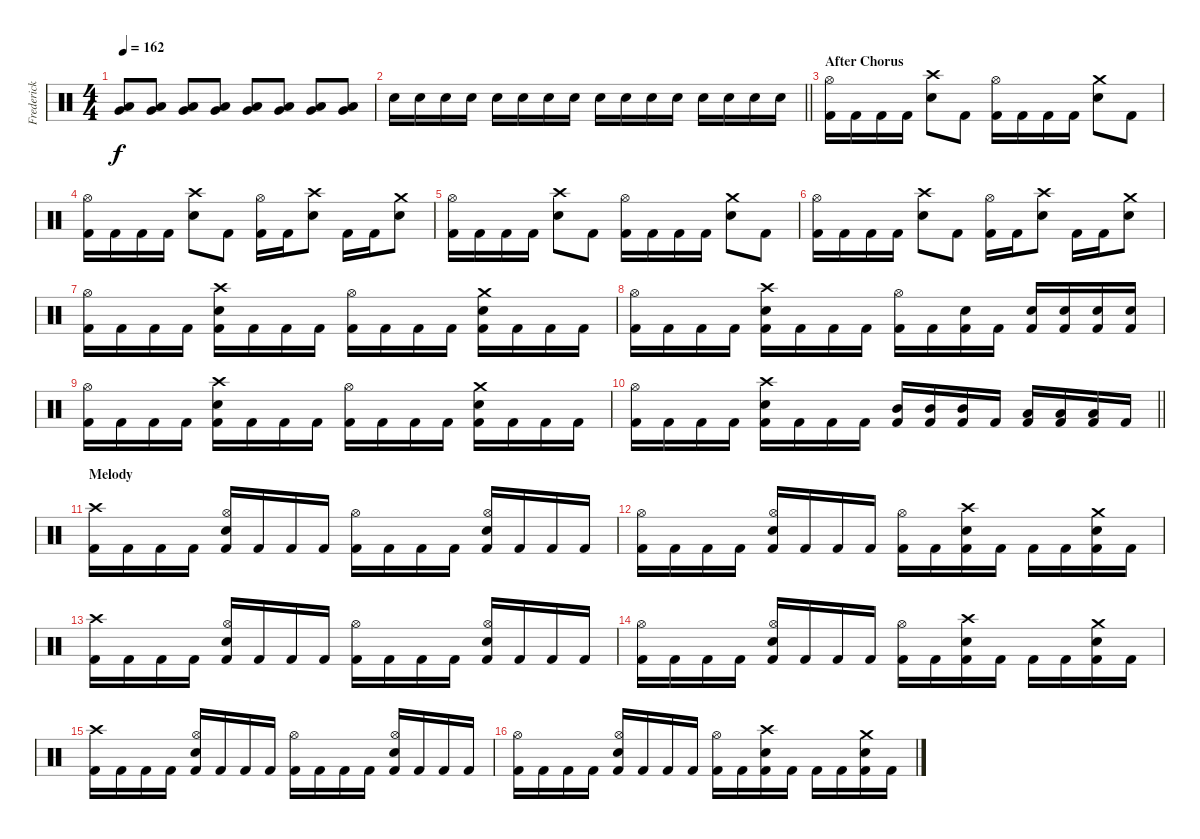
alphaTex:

\track ("Frederick Ehmke" "Frederick ") {instrument percussion}
\staff {score}
\articulation defaults
\ts (4 4)
\tempo 162
\clef neutral
\ks c
("Low Floor Tom (hit)" "Very Low Tom (hit)").8{dy f} ("Low Floor Tom (hit)" "Very Low Tom (hit)").8 ("Low Floor Tom (hit)" "Very Low Tom (hit)").8 ("Low Floor Tom (hit)" "Very Low Tom (hit)").8 ("Low Floor Tom (hit)" "Very Low Tom (hit)").8 ("Low Floor Tom (hit)" "Very Low Tom (hit)").8 ("Low Floor Tom (hit)" "Very Low Tom (hit)").8 ("Low Floor Tom (hit)" "Very Low Tom (hit)").8 |
\barLineRight lightlight "Electric Snare (hit)".16 "Electric Snare (hit)".16 "Electric Snare (hit)".16 "Electric Snare (hit)".16 "Electric Snare (hit)".16 "Electric Snare (hit)".16 "Electric Snare (hit)".16 "Electric Snare (hit)".16 "Electric Snare (hit)".16 "Electric Snare (hit)".16 "Electric Snare (hit)".16 "Electric Snare (hit)".16 "Electric Snare (hit)".16 "Electric Snare (hit)".16 "Electric Snare (hit)".16 "Electric Snare (hit)".16
|
\section ("" "After Chorus")
("Hi-Hat (open)" "Kick (hit) 2").16 "Kick (hit) 2".16 "Kick (hit) 2".16 "Kick (hit) 2".16 ("Electric Snare (hit)" "Crash high (hit)").8 "Kick (hit) 2".8 ("Hi-Hat (open)" "Kick (hit) 2").16 "Kick (hit) 2".16 "Kick (hit) 2".16 "Kick (hit) 2".16 ("Electric Snare (hit)" "Crash medium (hit)").8 "Kick (hit) 2".8 |
("Hi-Hat (open)" "Kick (hit) 2").16 "Kick (hit) 2".16 "Kick (hit) 2".16 "Kick (hit) 2".16 ("Electric Snare (hit)" "Crash high (hit)").8 "Kick (hit) 2".8 ("Hi-Hat (open)" "Kick (hit) 2").16 "Kick (hit) 2".16 ("Electric Snare (hit)" "Crash high (hit)").8 "Kick (hit) 2".16 "Kick (hit) 2".16 ("Electric Snare (hit)" "Crash medium (hit)").8 |
("Hi-Hat (open)" "Kick (hit) 2").16 "Kick (hit) 2".16 "Kick (hit) 2".16 "Kick (hit) 2".16 ("Electric Snare (hit)" "Crash high (hit)").8 "Kick (hit) 2".8 ("Hi-Hat (open)" "Kick (hit) 2").16 "Kick (hit) 2".16 "Kick (hit) 2".16 "Kick (hit) 2".16 ("Electric Snare (hit)" "Crash medium (hit)").8 "Kick (hit) 2".8 |
("Hi-Hat (open)" "Kick (hit) 2").16 "Kick (hit) 2".16 "Kick (hit) 2".16 "Kick (hit) 2".16 ("Electric Snare (hit)" "Crash high (hit)").8 "Kick (hit) 2".8 ("Hi-Hat (open)" "Kick (hit) 2").16 "Kick (hit) 2".16 ("Electric Snare (hit)" "Crash high (hit)").8 "Kick (hit) 2".16 "Kick (hit) 2".16 ("Electric Snare (hit)" "Crash medium (hit)").8 |
("Hi-Hat (open)" "Kick (hit) 2").16 "Kick (hit) 2".16 "Kick (hit) 2".16 "Kick (hit) 2".16 ("Electric Snare (hit)" "Crash high (hit)" "Kick (hit) 2").16 "Kick (hit) 2".16 "Kick (hit) 2".16 "Kick (hit) 2".16 ("Hi-Hat (open)" "Kick (hit) 2").16 "Kick (hit) 2".16 "Kick (hit) 2".16 "Kick (hit) 2".16 ("Electric Snare (hit)" "Crash medium (hit)" "Kick (hit) 2").16 "Kick (hit) 2".16 "Kick (hit) 2".16 "Kick (hit) 2".16 |
("Hi-Hat (open)" "Kick (hit) 2").16 "Kick (hit) 2".16 "Kick (hit) 2".16 "Kick (hit) 2".16 ("Electric Snare (hit)" "Crash high (hit)" "Kick (hit) 2").16 "Kick (hit) 2".16 "Kick (hit) 2".16 "Kick (hit) 2".16 ("Hi-Hat (open)" "Kick (hit) 2").16 "Kick (hit) 2".16 ("Electric Snare (hit)" "Kick (hit) 2").16 "Kick (hit) 2".16 ("Electric Snare (hit)" "Kick (hit) 2").16 ("Electric Snare (hit)" "Kick (hit) 2").16 ("Electric Snare (hit)" "Kick (hit) 2").16 ("Electric Snare (hit)" "Kick (hit) 2").16 |
("Hi-Hat (open)" "Kick (hit) 2").16 "Kick (hit) 2".16 "Kick (hit) 2".16 "Kick (hit) 2".16 ("Electric Snare (hit)" "Crash high (hit)" "Kick (hit) 2").16 "Kick (hit) 2".16 "Kick (hit) 2".16 "Kick (hit) 2".16 ("Hi-Hat (open)" "Kick (hit) 2").16 "Kick (hit) 2".16 "Kick (hit) 2".16 "Kick (hit) 2".16 ("Electric Snare (hit)" "Crash medium (hit)" "Kick (hit) 2").16 "Kick (hit) 2".16 "Kick (hit) 2".16 "Kick (hit) 2".16 |
\barLineRight lightlight
("Hi-Hat (open)" "Kick (hit) 2").16 "Kick (hit) 2".16 "Kick (hit) 2".16 "Kick (hit) 2".16 ("Electric Snare (hit)" "Crash high (hit)" "Kick (hit) 2").16 "Kick (hit) 2".16 "Kick (hit) 2".16 "Kick (hit) 2".16 ("Mid Tom (hit)" "Kick (hit) 2").16 ("Mid Tom (hit)" "Kick (hit) 2").16 ("Mid Tom (hit)" "Kick (hit) 2").16 "Kick (hit) 2".16 ("Low Tom (hit)" "Kick (hit) 2").16 ("Low Tom (hit)" "Kick (hit) 2").16 ("Low Tom (hit)" "Kick (hit) 2").16 "Kick (hit) 2".16 |
\section ("" "Melody")
("Crash high (hit)" "Kick (hit) 2").16 "Kick (hit) 2".16 "Kick (hit) 2".16 "Kick (hit) 2".16 ("Electric Snare (hit)" "Hi-Hat (open)" "Kick (hit) 2").16 "Kick (hit) 2".16 "Kick (hit) 2".16 "Kick (hit) 2".16 ("Hi-Hat (open)" "Kick (hit) 2").16 "Kick (hit) 2".16 "Kick (hit) 2".16 "Kick (hit) 2".16 ("Electric Snare (hit)" "Hi-Hat (open)" "Kick (hit) 2").16 "Kick (hit) 2".16 "Kick (hit) 2".16 "Kick (hit) 2".16 |
("Hi-Hat (open)" "Kick (hit) 2").16 "Kick (hit) 2".16 "Kick (hit) 2".16 "Kick (hit) 2".16 ("Electric Snare (hit)" "Hi-Hat (open)" "Kick (hit) 2").16 "Kick (hit) 2".16 "Kick (hit) 2".16 "Kick (hit) 2".16 ("Hi-Hat (open)" "Kick (hit) 2").16 "Kick (hit) 2".16 ("Electric Snare (hit)" "Crash high (hit)" "Kick (hit) 2").16 "Kick (hit) 2".16 "Kick (hit) 2".16 "Kick (hit) 2".16 ("Electric Snare (hit)" "Crash medium (hit)" "Kick (hit) 2").16 "Kick (hit) 2".16 |
("Crash high (hit)" "Kick (hit) 2").16 "Kick (hit) 2".16 "Kick (hit) 2".16 "Kick (hit) 2".16 ("Electric Snare (hit)" "Hi-Hat (open)" "Kick (hit) 2").16 "Kick (hit) 2".16 "Kick (hit) 2".16 "Kick (hit) 2".16 ("Hi-Hat (open)" "Kick (hit) 2").16 "Kick (hit) 2".16 "Kick (hit) 2".16 "Kick (hit) 2".16 ("Electric Snare (hit)" "Hi-Hat (open)" "Kick (hit) 2").16 "Kick (hit) 2".16 "Kick (hit) 2".16 "Kick (hit) 2".16 |
("Hi-Hat (open)" "Kick (hit) 2").16 "Kick (hit) 2".16 "Kick (hit) 2".16 "Kick (hit) 2".16 ("Electric Snare (hit)" "Hi-Hat (open)" "Kick (hit) 2").16 "Kick (hit) 2".16 "Kick (hit) 2".16 "Kick (hit) 2".16 ("Hi-Hat (open)" "Kick (hit) 2").16 "Kick (hit) 2".16 ("Electric Snare (hit)" "Crash high (hit)" "Kick (hit) 2").16 "Kick (hit) 2".16 "Kick (hit) 2".16 "Kick (hit) 2".16 ("Electric Snare (hit)" "Crash medium (hit)" "Kick (hit) 2").16 "Kick (hit) 2".16 |
("Crash high (hit)" "Kick (hit) 2").16 "Kick (hit) 2".16 "Kick (hit) 2".16 "Kick (hit) 2".16 ("Electric Snare (hit)" "Hi-Hat (open)" "Kick (hit) 2").16 "Kick (hit) 2".16 "Kick (hit) 2".16 "Kick (hit) 2".16 ("Hi-Hat (open)" "Kick (hit) 2").16 "Kick (hit) 2".16 "Kick (hit) 2".16 "Kick (hit) 2".16 ("Electric Snare (hit)" "Hi-Hat (open)" "Kick (hit) 2").16 "Kick (hit) 2".16 "Kick (hit) 2".16 "Kick (hit) 2".16 |
("Hi-Hat (open)" "Kick (hit) 2").16 "Kick (hit) 2".16 "Kick (hit) 2".16 "Kick (hit) 2".16 ("Electric Snare (hit)" "Hi-Hat (open)" "Kick (hit) 2").16 "Kick (hit) 2".16 "Kick (hit) 2".16 "Kick (hit) 2".16 ("Hi-Hat (open)" "Kick (hit) 2").16 "Kick (hit) 2".16 ("Electric Snare (hit)" "Crash high (hit)" "Kick (hit) 2").16 "Kick (hit) 2".16 "Kick (hit) 2".16 "Kick (hit) 2".16 ("Electric Snare (hit)" "Crash medium (hit)" "Kick (hit) 2").16 "Kick (hit) 2".16
